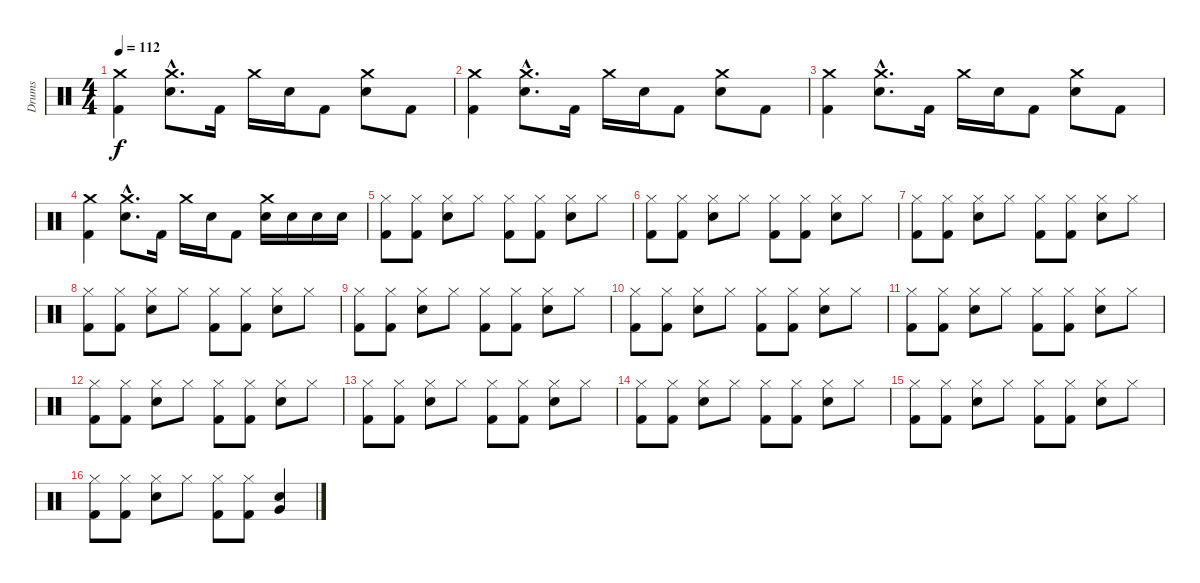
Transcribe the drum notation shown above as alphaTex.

\track ("Drums" "Drums") {instrument percussion}
\staff {score}
\articulation defaults
\ts (4 4)
\tempo 112
\clef neutral
\ks c
("Crash medium (hit)" "Kick (hit) 2").4{dy f} ("Crash medium (hit)"{hac} "Snare (hit) 2"{hac}).8{d} "Kick (hit) 2".16 "Crash medium (hit)".16 "Snare (hit) 2".16 "Kick (hit) 2".8 ("Crash medium (hit)" "Snare (hit) 2").8 "Kick (hit) 2".8 |
("Crash medium (hit)" "Kick (hit) 2").4 ("Crash medium (hit)"{hac} "Snare (hit) 2"{hac}).8{d} "Kick (hit) 2".16 "Crash medium (hit)".16 "Snare (hit) 2".16 "Kick (hit) 2".8 ("Crash medium (hit)" "Snare (hit) 2").8 "Kick (hit) 2".8 |
("Crash medium (hit)" "Kick (hit) 2").4 ("Crash medium (hit)"{hac} "Snare (hit) 2"{hac}).8{d} "Kick (hit) 2".16 "Crash medium (hit)".16 "Snare (hit) 2".16 "Kick (hit) 2".8 ("Crash medium (hit)" "Snare (hit) 2").8 "Kick (hit) 2".8 |
("Crash medium (hit)" "Kick (hit) 2").4 ("Crash medium (hit)"{hac} "Snare (hit) 2"{hac}).8{d} "Kick (hit) 2".16 "Crash medium (hit)".16 "Snare (hit) 2".16 "Kick (hit) 2".8 ("Crash medium (hit)" "Snare (hit) 2").16 "Snare (hit) 2".16 "Snare (hit) 2".16 "Snare (hit) 2".16 |
("Hi-Hat (closed)" "Kick (hit) 2").8 ("Hi-Hat (closed)" "Kick (hit) 2").8 ("Hi-Hat (closed)" "Snare (hit) 2").8 "Hi-Hat (closed)".8 ("Hi-Hat (closed)" "Kick (hit) 2").8 ("Hi-Hat (closed)" "Kick (hit) 2").8 ("Hi-Hat (closed)" "Snare (hit) 2").8 "Hi-Hat (closed)".8 |
("Hi-Hat (closed)" "Kick (hit) 2").8 ("Hi-Hat (closed)" "Kick (hit) 2").8 ("Hi-Hat (closed)" "Snare (hit) 2").8 "Hi-Hat (closed)".8 ("Hi-Hat (closed)" "Kick (hit) 2").8 ("Hi-Hat (closed)" "Kick (hit) 2").8 ("Hi-Hat (closed)" "Snare (hit) 2").8 "Hi-Hat (closed)".8 |
("Hi-Hat (closed)" "Kick (hit) 2").8 ("Hi-Hat (closed)" "Kick (hit) 2").8 ("Hi-Hat (closed)" "Snare (hit) 2").8 "Hi-Hat (closed)".8 ("Hi-Hat (closed)" "Kick (hit) 2").8 ("Hi-Hat (closed)" "Kick (hit) 2").8 ("Hi-Hat (closed)" "Snare (hit) 2").8 "Hi-Hat (closed)".8 |
("Hi-Hat (closed)" "Kick (hit) 2").8 ("Hi-Hat (closed)" "Kick (hit) 2").8 ("Hi-Hat (closed)" "Snare (hit) 2").8 "Hi-Hat (closed)".8 ("Hi-Hat (closed)" "Kick (hit) 2").8 ("Hi-Hat (closed)" "Kick (hit) 2").8 ("Hi-Hat (closed)" "Snare (hit) 2").8 "Hi-Hat (closed)".8 |
("Hi-Hat (closed)" "Kick (hit) 2").8 ("Hi-Hat (closed)" "Kick (hit) 2").8 ("Hi-Hat (closed)" "Snare (hit) 2").8 "Hi-Hat (closed)".8 ("Hi-Hat (closed)" "Kick (hit) 2").8 ("Hi-Hat (closed)" "Kick (hit) 2").8 ("Hi-Hat (closed)" "Snare (hit) 2").8 "Hi-Hat (closed)".8 |
("Hi-Hat (closed)" "Kick (hit) 2").8 ("Hi-Hat (closed)" "Kick (hit) 2").8 ("Hi-Hat (closed)" "Snare (hit) 2").8 "Hi-Hat (closed)".8 ("Hi-Hat (closed)" "Kick (hit) 2").8 ("Hi-Hat (closed)" "Kick (hit) 2").8 ("Hi-Hat (closed)" "Snare (hit) 2").8 "Hi-Hat (closed)".8 |
("Hi-Hat (closed)" "Kick (hit) 2").8 ("Hi-Hat (closed)" "Kick (hit) 2").8 ("Hi-Hat (closed)" "Snare (hit) 2").8 "Hi-Hat (closed)".8 ("Hi-Hat (closed)" "Kick (hit) 2").8 ("Hi-Hat (closed)" "Kick (hit) 2").8 ("Hi-Hat (closed)" "Snare (hit) 2").8 "Hi-Hat (closed)".8 |
("Hi-Hat (closed)" "Kick (hit) 2").8 ("Hi-Hat (closed)" "Kick (hit) 2").8 ("Hi-Hat (closed)" "Snare (hit) 2").8 "Hi-Hat (closed)".8 ("Hi-Hat (closed)" "Kick (hit) 2").8 ("Hi-Hat (closed)" "Kick (hit) 2").8 ("Hi-Hat (closed)" "Snare (hit) 2").8 "Hi-Hat (closed)".8 |
("Hi-Hat (closed)" "Kick (hit) 2").8 ("Hi-Hat (closed)" "Kick (hit) 2").8 ("Hi-Hat (closed)" "Snare (hit) 2").8 "Hi-Hat (closed)".8 ("Hi-Hat (closed)" "Kick (hit) 2").8 ("Hi-Hat (closed)" "Kick (hit) 2").8 ("Hi-Hat (closed)" "Snare (hit) 2").8 "Hi-Hat (closed)".8 |
("Hi-Hat (closed)" "Kick (hit) 2").8 ("Hi-Hat (closed)" "Kick (hit) 2").8 ("Hi-Hat (closed)" "Snare (hit) 2").8 "Hi-Hat (closed)".8 ("Hi-Hat (closed)" "Kick (hit) 2").8 ("Hi-Hat (closed)" "Kick (hit) 2").8 ("Hi-Hat (closed)" "Snare (hit) 2").8 "Hi-Hat (closed)".8 |
("Hi-Hat (closed)" "Kick (hit) 2").8 ("Hi-Hat (closed)" "Kick (hit) 2").8 ("Hi-Hat (closed)" "Snare (hit) 2").8 "Hi-Hat (closed)".8 ("Hi-Hat (closed)" "Kick (hit) 2").8 ("Hi-Hat (closed)" "Kick (hit) 2").8 ("Hi-Hat (closed)" "Snare (hit) 2").8 "Hi-Hat (closed)".8 |
("Hi-Hat (closed)" "Kick (hit) 2").8 ("Hi-Hat (closed)" "Kick (hit) 2").8 ("Hi-Hat (closed)" "Snare (hit) 2").8 "Hi-Hat (closed)".8 ("Hi-Hat (closed)" "Kick (hit) 2").8 ("Hi-Hat (closed)" "Kick (hit) 2").8 ("Very Low Tom (hit)" "Snare (hit) 2").4
